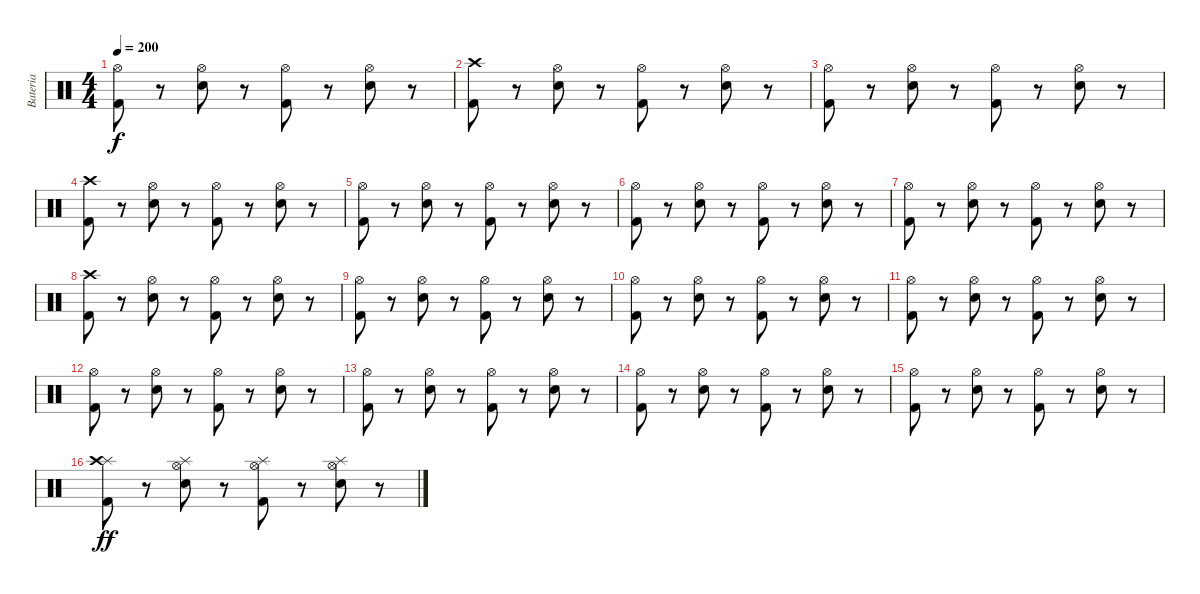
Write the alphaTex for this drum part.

\track ("Bateria" "Bateria") {instrument percussion}
\staff {score}
\articulation defaults
\ts (4 4)
\tempo 200
\clef neutral
\ks c
("Hi-Hat (open)" "Kick (hit) 2").8{dy f} r.8 ("Hi-Hat (open)" "Snare (hit) 2").8 r.8 ("Hi-Hat (open)" "Kick (hit) 2").8 r.8 ("Hi-Hat (open)" "Snare (hit) 2").8 r.8 |
("Crash high (hit)" "Kick (hit) 2").8 r.8 ("Hi-Hat (open)" "Snare (hit) 2").8 r.8 ("Hi-Hat (open)" "Kick (hit) 2").8 r.8 ("Hi-Hat (open)" "Snare (hit) 2").8 r.8 |
("Hi-Hat (open)" "Kick (hit) 2").8 r.8 ("Hi-Hat (open)" "Snare (hit) 2").8 r.8 ("Hi-Hat (open)" "Kick (hit) 2").8 r.8 ("Hi-Hat (open)" "Snare (hit) 2").8 r.8 |
("Crash high (hit)" "Kick (hit) 2").8 r.8 ("Hi-Hat (open)" "Snare (hit) 2").8 r.8 ("Hi-Hat (open)" "Kick (hit) 2").8 r.8 ("Hi-Hat (open)" "Snare (hit) 2").8 r.8 |
("Hi-Hat (open)" "Kick (hit) 2").8 r.8 ("Hi-Hat (open)" "Snare (hit) 2").8 r.8 ("Hi-Hat (open)" "Kick (hit) 2").8 r.8 ("Hi-Hat (open)" "Snare (hit) 2").8 r.8 |
("Hi-Hat (open)" "Kick (hit) 2").8 r.8 ("Hi-Hat (open)" "Snare (hit) 2").8 r.8 ("Hi-Hat (open)" "Kick (hit) 2").8 r.8 ("Hi-Hat (open)" "Snare (hit) 2").8 r.8 |
("Hi-Hat (open)" "Kick (hit) 2").8 r.8 ("Hi-Hat (open)" "Snare (hit) 2").8 r.8 ("Hi-Hat (open)" "Kick (hit) 2").8 r.8 ("Hi-Hat (open)" "Snare (hit) 2").8 r.8 |
("Crash high (hit)" "Kick (hit) 2").8 r.8 ("Hi-Hat (open)" "Snare (hit) 2").8 r.8 ("Hi-Hat (open)" "Kick (hit) 2").8 r.8 ("Hi-Hat (open)" "Snare (hit) 2").8 r.8 |
("Hi-Hat (open)" "Kick (hit) 2").8 r.8 ("Hi-Hat (open)" "Snare (hit) 2").8 r.8 ("Hi-Hat (open)" "Kick (hit) 2").8 r.8 ("Hi-Hat (open)" "Snare (hit) 2").8 r.8 |
("Hi-Hat (open)" "Kick (hit) 2").8 r.8 ("Hi-Hat (open)" "Snare (hit) 2").8 r.8 ("Hi-Hat (open)" "Kick (hit) 2").8 r.8 ("Hi-Hat (open)" "Snare (hit) 2").8 r.8 |
("Hi-Hat (open)" "Kick (hit) 2").8 r.8 ("Hi-Hat (open)" "Snare (hit) 2").8 r.8 ("Hi-Hat (open)" "Kick (hit) 2").8 r.8 ("Hi-Hat (open)" "Snare (hit) 2").8 r.8 |
("Hi-Hat (open)" "Kick (hit) 2").8 r.8 ("Hi-Hat (open)" "Snare (hit) 2").8 r.8 ("Hi-Hat (open)" "Kick (hit) 2").8 r.8 ("Hi-Hat (open)" "Snare (hit) 2").8 r.8 |
("Hi-Hat (open)" "Kick (hit) 2").8 r.8 ("Hi-Hat (open)" "Snare (hit) 2").8 r.8 ("Hi-Hat (open)" "Kick (hit) 2").8 r.8 ("Hi-Hat (open)" "Snare (hit) 2").8 r.8 |
("Hi-Hat (open)" "Kick (hit) 2").8 r.8 ("Hi-Hat (open)" "Snare (hit) 2").8 r.8 ("Hi-Hat (open)" "Kick (hit) 2").8 r.8 ("Hi-Hat (open)" "Snare (hit) 2").8 r.8 |
("Hi-Hat (open)" "Kick (hit) 2").8 r.8 ("Hi-Hat (open)" "Snare (hit) 2").8 r.8 ("Hi-Hat (open)" "Kick (hit) 2").8 r.8 ("Hi-Hat (open)" "Snare (hit) 2").8 r.8 |
("Splash (hit)" "Crash high (hit)" "Kick (hit) 2").8{dy ff} r.8 ("Splash (hit)" "Hi-Hat (open)" "Snare (hit) 2").8 r.8 ("Splash (hit)" "Hi-Hat (open)" "Kick (hit) 2").8 r.8 ("Splash (hit)" "Hi-Hat (open)" "Snare (hit) 2").8 r.8
